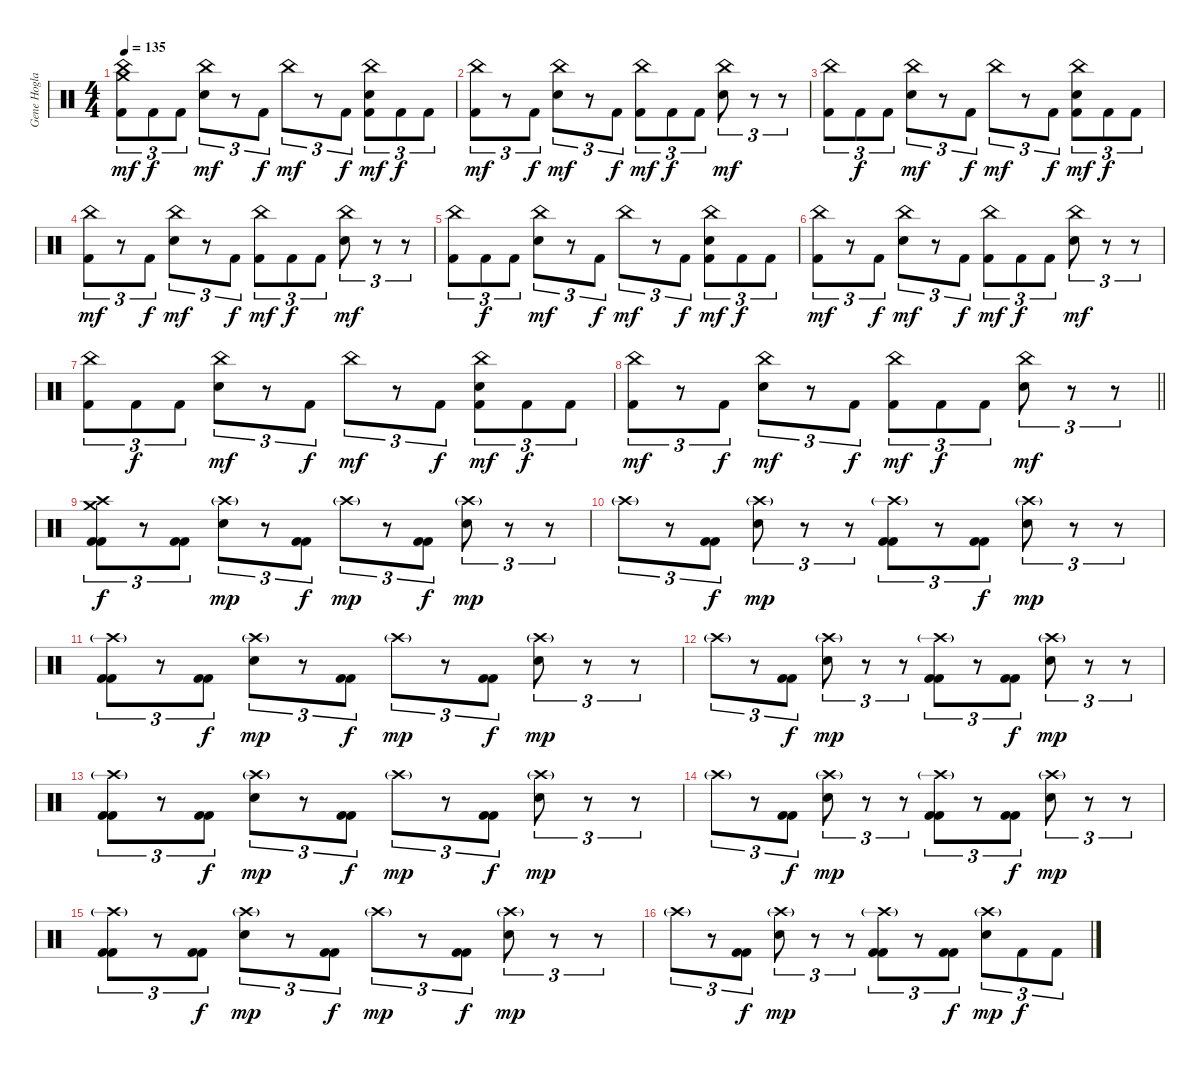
\track ("Gene Hoglan" "Gene Hogla") {instrument percussion}
\staff {score}
\articulation defaults
\ts (4 4)
\tempo 135
\clef neutral
\ks c
("Crash medium (hit)" "China (hit)" "Kick (hit) 2").8{tu (3 2) dy mf} "Kick (hit) 2".8{tu (3 2) dy f} "Kick (hit) 2".8{tu (3 2)} ("China (hit)" "Electric Snare (hit)").8{tu (3 2) dy mf} r.8{tu (3 2)} "Kick (hit) 2".8{tu (3 2) dy f} "China (hit)".8{tu (3 2) dy mf} r.8{tu (3 2)} "Kick (hit) 2".8{tu (3 2) dy f} ("China (hit)" "Electric Snare (hit)" "Kick (hit) 2").8{tu (3 2) dy mf} "Kick (hit) 2".8{tu (3 2) dy f} "Kick (hit) 2".8{tu (3 2)} |
("China (hit)" "Kick (hit) 2").8{tu (3 2) dy mf} r.8{tu (3 2)} "Kick (hit) 2".8{tu (3 2) dy f} ("China (hit)" "Electric Snare (hit)").8{tu (3 2) dy mf} r.8{tu (3 2)} "Kick (hit) 2".8{tu (3 2) dy f} ("China (hit)" "Kick (hit) 2").8{tu (3 2) dy mf} "Kick (hit) 2".8{tu (3 2) dy f} "Kick (hit) 2".8{tu (3 2)} ("China (hit)" "Electric Snare (hit)").8{tu (3 2) dy mf} r.8{tu (3 2)} r.8{tu (3 2)} |
("China (hit)" "Kick (hit) 2").8{tu (3 2)} "Kick (hit) 2".8{tu (3 2) dy f} "Kick (hit) 2".8{tu (3 2)} ("China (hit)" "Electric Snare (hit)").8{tu (3 2) dy mf} r.8{tu (3 2)} "Kick (hit) 2".8{tu (3 2) dy f} "China (hit)".8{tu (3 2) dy mf} r.8{tu (3 2)} "Kick (hit) 2".8{tu (3 2) dy f} ("China (hit)" "Electric Snare (hit)" "Kick (hit) 2").8{tu (3 2) dy mf} "Kick (hit) 2".8{tu (3 2) dy f} "Kick (hit) 2".8{tu (3 2)} |
("China (hit)" "Kick (hit) 2").8{tu (3 2) dy mf} r.8{tu (3 2)} "Kick (hit) 2".8{tu (3 2) dy f} ("China (hit)" "Electric Snare (hit)").8{tu (3 2) dy mf} r.8{tu (3 2)} "Kick (hit) 2".8{tu (3 2) dy f} ("China (hit)" "Kick (hit) 2").8{tu (3 2) dy mf} "Kick (hit) 2".8{tu (3 2) dy f} "Kick (hit) 2".8{tu (3 2)} ("China (hit)" "Electric Snare (hit)").8{tu (3 2) dy mf} r.8{tu (3 2)} r.8{tu (3 2)} |
("China (hit)" "Kick (hit) 2").8{tu (3 2)} "Kick (hit) 2".8{tu (3 2) dy f} "Kick (hit) 2".8{tu (3 2)} ("China (hit)" "Electric Snare (hit)").8{tu (3 2) dy mf} r.8{tu (3 2)} "Kick (hit) 2".8{tu (3 2) dy f} "China (hit)".8{tu (3 2) dy mf} r.8{tu (3 2)} "Kick (hit) 2".8{tu (3 2) dy f} ("China (hit)" "Electric Snare (hit)" "Kick (hit) 2").8{tu (3 2) dy mf} "Kick (hit) 2".8{tu (3 2) dy f} "Kick (hit) 2".8{tu (3 2)} |
("China (hit)" "Kick (hit) 2").8{tu (3 2) dy mf} r.8{tu (3 2)} "Kick (hit) 2".8{tu (3 2) dy f} ("China (hit)" "Electric Snare (hit)").8{tu (3 2) dy mf} r.8{tu (3 2)} "Kick (hit) 2".8{tu (3 2) dy f} ("China (hit)" "Kick (hit) 2").8{tu (3 2) dy mf} "Kick (hit) 2".8{tu (3 2) dy f} "Kick (hit) 2".8{tu (3 2)} ("China (hit)" "Electric Snare (hit)").8{tu (3 2) dy mf} r.8{tu (3 2)} r.8{tu (3 2)} |
("China (hit)" "Kick (hit) 2").8{tu (3 2)} "Kick (hit) 2".8{tu (3 2) dy f} "Kick (hit) 2".8{tu (3 2)} ("China (hit)" "Electric Snare (hit)").8{tu (3 2) dy mf} r.8{tu (3 2)} "Kick (hit) 2".8{tu (3 2) dy f} "China (hit)".8{tu (3 2) dy mf} r.8{tu (3 2)} "Kick (hit) 2".8{tu (3 2) dy f} ("China (hit)" "Electric Snare (hit)" "Kick (hit) 2").8{tu (3 2) dy mf} "Kick (hit) 2".8{tu (3 2) dy f} "Kick (hit) 2".8{tu (3 2)} |
\barLineRight lightlight
("China (hit)" "Kick (hit) 2").8{tu (3 2) dy mf} r.8{tu (3 2)} "Kick (hit) 2".8{tu (3 2) dy f} ("China (hit)" "Electric Snare (hit)").8{tu (3 2) dy mf} r.8{tu (3 2)} "Kick (hit) 2".8{tu (3 2) dy f} ("China (hit)" "Kick (hit) 2").8{tu (3 2) dy mf} "Kick (hit) 2".8{tu (3 2) dy f} "Kick (hit) 2".8{tu (3 2)} ("China (hit)" "Electric Snare (hit)").8{tu (3 2) dy mf} r.8{tu (3 2)} r.8{tu (3 2)} |
("Crash high (hit)" "Crash medium (hit)" "Kick (hit) 2" "Kick (hit) 2").8{tu (3 2) dy f} r.8{tu (3 2)} ("Kick (hit) 2" "Kick (hit) 2").8{tu (3 2)} ("Crash high (hit)"{g} "Electric Snare (hit)").8{tu (3 2) dy mp} r.8{tu (3 2)} ("Kick (hit) 2" "Kick (hit) 2").8{tu (3 2) dy f} "Crash high (hit)"{g}.8{tu (3 2) dy mp} r.8{tu (3 2)} ("Kick (hit) 2" "Kick (hit) 2").8{tu (3 2) dy f} ("Crash high (hit)"{g} "Electric Snare (hit)").8{tu (3 2) dy mp} r.8{tu (3 2)} r.8{tu (3 2)} |
"Crash high (hit)"{g}.8{tu (3 2)} r.8{tu (3 2)} ("Kick (hit) 2" "Kick (hit) 2").8{tu (3 2) dy f} ("Crash high (hit)"{g} "Electric Snare (hit)").8{tu (3 2) dy mp} r.8{tu (3 2)} r.8{tu (3 2)} ("Crash high (hit)"{g} "Kick (hit) 2" "Kick (hit) 2").8{tu (3 2)} r.8{tu (3 2)} ("Kick (hit) 2" "Kick (hit) 2").8{tu (3 2) dy f} ("Crash high (hit)"{g} "Electric Snare (hit)").8{tu (3 2) dy mp} r.8{tu (3 2)} r.8{tu (3 2)} |
("Crash high (hit)"{g} "Kick (hit) 2" "Kick (hit) 2").8{tu (3 2)} r.8{tu (3 2)} ("Kick (hit) 2" "Kick (hit) 2").8{tu (3 2) dy f} ("Crash high (hit)"{g} "Electric Snare (hit)").8{tu (3 2) dy mp} r.8{tu (3 2)} ("Kick (hit) 2" "Kick (hit) 2").8{tu (3 2) dy f} "Crash high (hit)"{g}.8{tu (3 2) dy mp} r.8{tu (3 2)} ("Kick (hit) 2" "Kick (hit) 2").8{tu (3 2) dy f} ("Crash high (hit)"{g} "Electric Snare (hit)").8{tu (3 2) dy mp} r.8{tu (3 2)} r.8{tu (3 2)} |
"Crash high (hit)"{g}.8{tu (3 2)} r.8{tu (3 2)} ("Kick (hit) 2" "Kick (hit) 2").8{tu (3 2) dy f} ("Crash high (hit)"{g} "Electric Snare (hit)").8{tu (3 2) dy mp} r.8{tu (3 2)} r.8{tu (3 2)} ("Crash high (hit)"{g} "Kick (hit) 2" "Kick (hit) 2").8{tu (3 2)} r.8{tu (3 2)} ("Kick (hit) 2" "Kick (hit) 2").8{tu (3 2) dy f} ("Crash high (hit)"{g} "Electric Snare (hit)").8{tu (3 2) dy mp} r.8{tu (3 2)} r.8{tu (3 2)} |
("Crash high (hit)"{g} "Kick (hit) 2" "Kick (hit) 2").8{tu (3 2)} r.8{tu (3 2)} ("Kick (hit) 2" "Kick (hit) 2").8{tu (3 2) dy f} ("Crash high (hit)"{g} "Electric Snare (hit)").8{tu (3 2) dy mp} r.8{tu (3 2)} ("Kick (hit) 2" "Kick (hit) 2").8{tu (3 2) dy f} "Crash high (hit)"{g}.8{tu (3 2) dy mp} r.8{tu (3 2)} ("Kick (hit) 2" "Kick (hit) 2").8{tu (3 2) dy f} ("Crash high (hit)"{g} "Electric Snare (hit)").8{tu (3 2) dy mp} r.8{tu (3 2)} r.8{tu (3 2)} |
"Crash high (hit)"{g}.8{tu (3 2)} r.8{tu (3 2)} ("Kick (hit) 2" "Kick (hit) 2").8{tu (3 2) dy f} ("Crash high (hit)"{g} "Electric Snare (hit)").8{tu (3 2) dy mp} r.8{tu (3 2)} r.8{tu (3 2)} ("Crash high (hit)"{g} "Kick (hit) 2" "Kick (hit) 2").8{tu (3 2)} r.8{tu (3 2)} ("Kick (hit) 2" "Kick (hit) 2").8{tu (3 2) dy f} ("Crash high (hit)"{g} "Electric Snare (hit)").8{tu (3 2) dy mp} r.8{tu (3 2)} r.8{tu (3 2)} |
("Crash high (hit)"{g} "Kick (hit) 2" "Kick (hit) 2").8{tu (3 2)} r.8{tu (3 2)} ("Kick (hit) 2" "Kick (hit) 2").8{tu (3 2) dy f} ("Crash high (hit)"{g} "Electric Snare (hit)").8{tu (3 2) dy mp} r.8{tu (3 2)} ("Kick (hit) 2" "Kick (hit) 2").8{tu (3 2) dy f} "Crash high (hit)"{g}.8{tu (3 2) dy mp} r.8{tu (3 2)} ("Kick (hit) 2" "Kick (hit) 2").8{tu (3 2) dy f} ("Crash high (hit)"{g} "Electric Snare (hit)").8{tu (3 2) dy mp} r.8{tu (3 2)} r.8{tu (3 2)} |
"Crash high (hit)"{g}.8{tu (3 2)} r.8{tu (3 2)} ("Kick (hit) 2" "Kick (hit) 2").8{tu (3 2) dy f} ("Crash high (hit)"{g} "Electric Snare (hit)").8{tu (3 2) dy mp} r.8{tu (3 2)} r.8{tu (3 2)} ("Crash high (hit)"{g} "Kick (hit) 2" "Kick (hit) 2").8{tu (3 2)} r.8{tu (3 2)} ("Kick (hit) 2" "Kick (hit) 2").8{tu (3 2) dy f} ("Crash high (hit)"{g} "Electric Snare (hit)").8{tu (3 2) dy mp} "Kick (hit) 2".8{tu (3 2) dy f} "Kick (hit) 2".8{tu (3 2)}
